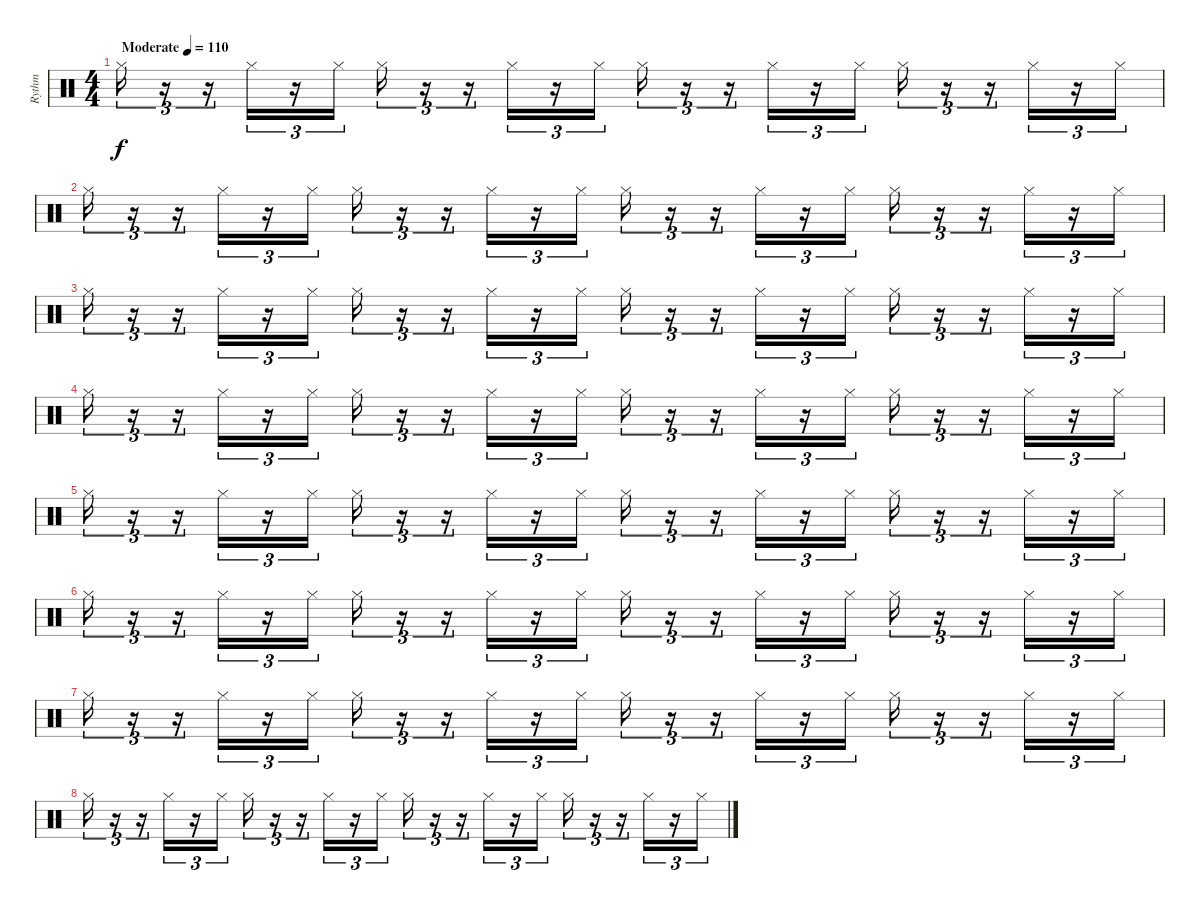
\track ("Rythm" "Rythm") {instrument percussion}
\staff {score}
\articulation defaults
\ts (4 4)
\tempo (110 "Moderate")
\clef neutral
\ks c "Hi-Hat (closed)".16{tu (3 2) dy f}
r.16{tu (3 2)} r.16{tu (3 2)} "Hi-Hat (closed)".16{tu (3 2)} r.16{tu (3 2)} "Hi-Hat (closed)".16{tu (3 2)} "Hi-Hat (closed)".16{tu (3 2)} r.16{tu (3 2)} r.16{tu (3 2)} "Hi-Hat (closed)".16{tu (3 2)} r.16{tu (3 2)} "Hi-Hat (closed)".16{tu (3 2)} "Hi-Hat (closed)".16{tu (3 2)} r.16{tu (3 2)} r.16{tu (3 2)} "Hi-Hat (closed)".16{tu (3 2)} r.16{tu (3 2)} "Hi-Hat (closed)".16{tu (3 2)} "Hi-Hat (closed)".16{tu (3 2)} r.16{tu (3 2)} r.16{tu (3 2)} "Hi-Hat (closed)".16{tu (3 2)} r.16{tu (3 2)} "Hi-Hat (closed)".16{tu (3 2)} |
"Hi-Hat (closed)".16{tu (3 2)} r.16{tu (3 2)} r.16{tu (3 2)} "Hi-Hat (closed)".16{tu (3 2)} r.16{tu (3 2)} "Hi-Hat (closed)".16{tu (3 2)} "Hi-Hat (closed)".16{tu (3 2)} r.16{tu (3 2)} r.16{tu (3 2)} "Hi-Hat (closed)".16{tu (3 2)} r.16{tu (3 2)} "Hi-Hat (closed)".16{tu (3 2)} "Hi-Hat (closed)".16{tu (3 2)} r.16{tu (3 2)} r.16{tu (3 2)} "Hi-Hat (closed)".16{tu (3 2)} r.16{tu (3 2)} "Hi-Hat (closed)".16{tu (3 2)} "Hi-Hat (closed)".16{tu (3 2)} r.16{tu (3 2)} r.16{tu (3 2)} "Hi-Hat (closed)".16{tu (3 2)} r.16{tu (3 2)} "Hi-Hat (closed)".16{tu (3 2)} |
"Hi-Hat (closed)".16{tu (3 2)} r.16{tu (3 2)} r.16{tu (3 2)} "Hi-Hat (closed)".16{tu (3 2)} r.16{tu (3 2)} "Hi-Hat (closed)".16{tu (3 2)} "Hi-Hat (closed)".16{tu (3 2)} r.16{tu (3 2)} r.16{tu (3 2)} "Hi-Hat (closed)".16{tu (3 2)} r.16{tu (3 2)} "Hi-Hat (closed)".16{tu (3 2)} "Hi-Hat (closed)".16{tu (3 2)} r.16{tu (3 2)} r.16{tu (3 2)} "Hi-Hat (closed)".16{tu (3 2)} r.16{tu (3 2)} "Hi-Hat (closed)".16{tu (3 2)} "Hi-Hat (closed)".16{tu (3 2)} r.16{tu (3 2)} r.16{tu (3 2)} "Hi-Hat (closed)".16{tu (3 2)} r.16{tu (3 2)} "Hi-Hat (closed)".16{tu (3 2)} |
"Hi-Hat (closed)".16{tu (3 2)} r.16{tu (3 2)} r.16{tu (3 2)} "Hi-Hat (closed)".16{tu (3 2)} r.16{tu (3 2)} "Hi-Hat (closed)".16{tu (3 2)} "Hi-Hat (closed)".16{tu (3 2)} r.16{tu (3 2)} r.16{tu (3 2)} "Hi-Hat (closed)".16{tu (3 2)} r.16{tu (3 2)} "Hi-Hat (closed)".16{tu (3 2)} "Hi-Hat (closed)".16{tu (3 2)} r.16{tu (3 2)} r.16{tu (3 2)} "Hi-Hat (closed)".16{tu (3 2)} r.16{tu (3 2)} "Hi-Hat (closed)".16{tu (3 2)} "Hi-Hat (closed)".16{tu (3 2)} r.16{tu (3 2)} r.16{tu (3 2)} "Hi-Hat (closed)".16{tu (3 2)} r.16{tu (3 2)} "Hi-Hat (closed)".16{tu (3 2)} |
"Hi-Hat (closed)".16{tu (3 2)} r.16{tu (3 2)} r.16{tu (3 2)} "Hi-Hat (closed)".16{tu (3 2)} r.16{tu (3 2)} "Hi-Hat (closed)".16{tu (3 2)} "Hi-Hat (closed)".16{tu (3 2)} r.16{tu (3 2)} r.16{tu (3 2)} "Hi-Hat (closed)".16{tu (3 2)} r.16{tu (3 2)} "Hi-Hat (closed)".16{tu (3 2)} "Hi-Hat (closed)".16{tu (3 2)} r.16{tu (3 2)} r.16{tu (3 2)} "Hi-Hat (closed)".16{tu (3 2)} r.16{tu (3 2)} "Hi-Hat (closed)".16{tu (3 2)} "Hi-Hat (closed)".16{tu (3 2)} r.16{tu (3 2)} r.16{tu (3 2)} "Hi-Hat (closed)".16{tu (3 2)} r.16{tu (3 2)} "Hi-Hat (closed)".16{tu (3 2)} |
"Hi-Hat (closed)".16{tu (3 2)} r.16{tu (3 2)} r.16{tu (3 2)} "Hi-Hat (closed)".16{tu (3 2)} r.16{tu (3 2)} "Hi-Hat (closed)".16{tu (3 2)} "Hi-Hat (closed)".16{tu (3 2)} r.16{tu (3 2)} r.16{tu (3 2)} "Hi-Hat (closed)".16{tu (3 2)} r.16{tu (3 2)} "Hi-Hat (closed)".16{tu (3 2)} "Hi-Hat (closed)".16{tu (3 2)} r.16{tu (3 2)} r.16{tu (3 2)} "Hi-Hat (closed)".16{tu (3 2)} r.16{tu (3 2)} "Hi-Hat (closed)".16{tu (3 2)} "Hi-Hat (closed)".16{tu (3 2)} r.16{tu (3 2)} r.16{tu (3 2)} "Hi-Hat (closed)".16{tu (3 2)} r.16{tu (3 2)} "Hi-Hat (closed)".16{tu (3 2)} |
"Hi-Hat (closed)".16{tu (3 2) volume 0} r.16{tu (3 2)} r.16{tu (3 2)} "Hi-Hat (closed)".16{tu (3 2)} r.16{tu (3 2)} "Hi-Hat (closed)".16{tu (3 2)} "Hi-Hat (closed)".16{tu (3 2)} r.16{tu (3 2)} r.16{tu (3 2)} "Hi-Hat (closed)".16{tu (3 2)} r.16{tu (3 2)} "Hi-Hat (closed)".16{tu (3 2)} "Hi-Hat (closed)".16{tu (3 2)} r.16{tu (3 2)} r.16{tu (3 2)} "Hi-Hat (closed)".16{tu (3 2)} r.16{tu (3 2)} "Hi-Hat (closed)".16{tu (3 2)} "Hi-Hat (closed)".16{tu (3 2)} r.16{tu (3 2)} r.16{tu (3 2)} "Hi-Hat (closed)".16{tu (3 2)} r.16{tu (3 2)} "Hi-Hat (closed)".16{tu (3 2)} |
"Hi-Hat (closed)".16{tu (3 2)} r.16{tu (3 2)} r.16{tu (3 2)} "Hi-Hat (closed)".16{tu (3 2)} r.16{tu (3 2)} "Hi-Hat (closed)".16{tu (3 2)} "Hi-Hat (closed)".16{tu (3 2)} r.16{tu (3 2)} r.16{tu (3 2)} "Hi-Hat (closed)".16{tu (3 2)} r.16{tu (3 2)} "Hi-Hat (closed)".16{tu (3 2)} "Hi-Hat (closed)".16{tu (3 2)} r.16{tu (3 2)} r.16{tu (3 2)} "Hi-Hat (closed)".16{tu (3 2)} r.16{tu (3 2)} "Hi-Hat (closed)".16{tu (3 2)} "Hi-Hat (closed)".16{tu (3 2)} r.16{tu (3 2)} r.16{tu (3 2)} "Hi-Hat (closed)".16{tu (3 2)} r.16{tu (3 2)} "Hi-Hat (closed)".16{tu (3 2)}
